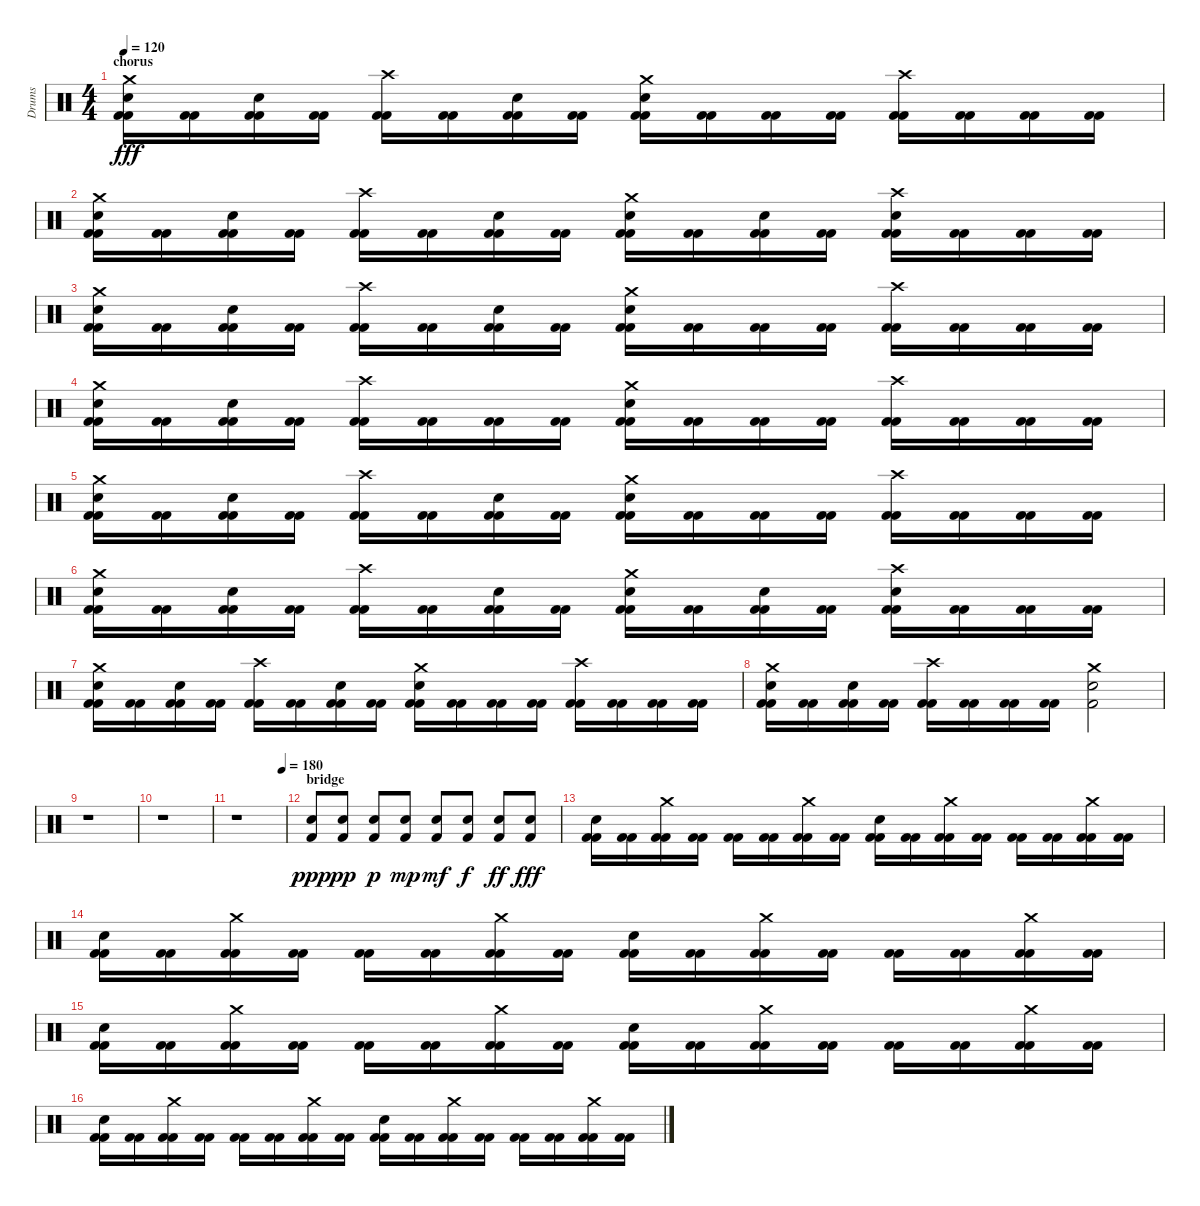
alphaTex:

\track ("Drums" "Drums") {instrument percussion}
\staff {score}
\articulation defaults
\ts (4 4)
\section ("" "chorus")
\tempo 120
\clef neutral
\ks c
("Crash medium (hit)" "Electric Snare (hit)" "Kick (hit) 2" "Kick (hit) 2").16{dy fff} ("Kick (hit) 2" "Kick (hit) 2").16 ("Electric Snare (hit)" "Kick (hit) 2" "Kick (hit) 2").16 ("Kick (hit) 2" "Kick (hit) 2").16 ("Crash high (hit)" "Kick (hit) 2" "Kick (hit) 2").16 ("Kick (hit) 2" "Kick (hit) 2").16 ("Electric Snare (hit)" "Kick (hit) 2" "Kick (hit) 2").16 ("Kick (hit) 2" "Kick (hit) 2").16 ("Crash medium (hit)" "Electric Snare (hit)" "Kick (hit) 2" "Kick (hit) 2").16 ("Kick (hit) 2" "Kick (hit) 2").16 ("Kick (hit) 2" "Kick (hit) 2").16 ("Kick (hit) 2" "Kick (hit) 2").16 ("Crash high (hit)" "Kick (hit) 2" "Kick (hit) 2").16 ("Kick (hit) 2" "Kick (hit) 2").16 ("Kick (hit) 2" "Kick (hit) 2").16 ("Kick (hit) 2" "Kick (hit) 2").16 |
("Crash medium (hit)" "Electric Snare (hit)" "Kick (hit) 2" "Kick (hit) 2").16 ("Kick (hit) 2" "Kick (hit) 2").16 ("Electric Snare (hit)" "Kick (hit) 2" "Kick (hit) 2").16 ("Kick (hit) 2" "Kick (hit) 2").16 ("Crash high (hit)" "Kick (hit) 2" "Kick (hit) 2").16 ("Kick (hit) 2" "Kick (hit) 2").16 ("Electric Snare (hit)" "Kick (hit) 2" "Kick (hit) 2").16 ("Kick (hit) 2" "Kick (hit) 2").16 ("Crash medium (hit)" "Electric Snare (hit)" "Kick (hit) 2" "Kick (hit) 2").16 ("Kick (hit) 2" "Kick (hit) 2").16 ("Electric Snare (hit)" "Kick (hit) 2" "Kick (hit) 2").16 ("Kick (hit) 2" "Kick (hit) 2").16 ("Crash high (hit)" "Electric Snare (hit)" "Kick (hit) 2" "Kick (hit) 2").16 ("Kick (hit) 2" "Kick (hit) 2").16 ("Kick (hit) 2" "Kick (hit) 2").16 ("Kick (hit) 2" "Kick (hit) 2").16 |
("Crash medium (hit)" "Electric Snare (hit)" "Kick (hit) 2" "Kick (hit) 2").16 ("Kick (hit) 2" "Kick (hit) 2").16 ("Electric Snare (hit)" "Kick (hit) 2" "Kick (hit) 2").16 ("Kick (hit) 2" "Kick (hit) 2").16 ("Crash high (hit)" "Kick (hit) 2" "Kick (hit) 2").16 ("Kick (hit) 2" "Kick (hit) 2").16 ("Electric Snare (hit)" "Kick (hit) 2" "Kick (hit) 2").16 ("Kick (hit) 2" "Kick (hit) 2").16 ("Crash medium (hit)" "Electric Snare (hit)" "Kick (hit) 2" "Kick (hit) 2").16 ("Kick (hit) 2" "Kick (hit) 2").16 ("Kick (hit) 2" "Kick (hit) 2").16 ("Kick (hit) 2" "Kick (hit) 2").16 ("Crash high (hit)" "Kick (hit) 2" "Kick (hit) 2").16 ("Kick (hit) 2" "Kick (hit) 2").16 ("Kick (hit) 2" "Kick (hit) 2").16 ("Kick (hit) 2" "Kick (hit) 2").16 |
("Crash medium (hit)" "Electric Snare (hit)" "Kick (hit) 2" "Kick (hit) 2").16 ("Kick (hit) 2" "Kick (hit) 2").16 ("Electric Snare (hit)" "Kick (hit) 2" "Kick (hit) 2").16 ("Kick (hit) 2" "Kick (hit) 2").16 ("Crash high (hit)" "Kick (hit) 2" "Kick (hit) 2").16 ("Kick (hit) 2" "Kick (hit) 2").16 ("Kick (hit) 2" "Kick (hit) 2").16 ("Kick (hit) 2" "Kick (hit) 2").16 ("Crash medium (hit)" "Electric Snare (hit)" "Kick (hit) 2" "Kick (hit) 2").16 ("Kick (hit) 2" "Kick (hit) 2").16 ("Kick (hit) 2" "Kick (hit) 2").16 ("Kick (hit) 2" "Kick (hit) 2").16 ("Crash high (hit)" "Kick (hit) 2" "Kick (hit) 2").16 ("Kick (hit) 2" "Kick (hit) 2").16 ("Kick (hit) 2" "Kick (hit) 2").16 ("Kick (hit) 2" "Kick (hit) 2").16 |
("Crash medium (hit)" "Electric Snare (hit)" "Kick (hit) 2" "Kick (hit) 2").16 ("Kick (hit) 2" "Kick (hit) 2").16 ("Electric Snare (hit)" "Kick (hit) 2" "Kick (hit) 2").16 ("Kick (hit) 2" "Kick (hit) 2").16 ("Crash high (hit)" "Kick (hit) 2" "Kick (hit) 2").16 ("Kick (hit) 2" "Kick (hit) 2").16 ("Electric Snare (hit)" "Kick (hit) 2" "Kick (hit) 2").16 ("Kick (hit) 2" "Kick (hit) 2").16 ("Crash medium (hit)" "Electric Snare (hit)" "Kick (hit) 2" "Kick (hit) 2").16 ("Kick (hit) 2" "Kick (hit) 2").16 ("Kick (hit) 2" "Kick (hit) 2").16 ("Kick (hit) 2" "Kick (hit) 2").16 ("Crash high (hit)" "Kick (hit) 2" "Kick (hit) 2").16 ("Kick (hit) 2" "Kick (hit) 2").16 ("Kick (hit) 2" "Kick (hit) 2").16 ("Kick (hit) 2" "Kick (hit) 2").16 |
("Crash medium (hit)" "Electric Snare (hit)" "Kick (hit) 2" "Kick (hit) 2").16 ("Kick (hit) 2" "Kick (hit) 2").16 ("Electric Snare (hit)" "Kick (hit) 2" "Kick (hit) 2").16 ("Kick (hit) 2" "Kick (hit) 2").16 ("Crash high (hit)" "Kick (hit) 2" "Kick (hit) 2").16 ("Kick (hit) 2" "Kick (hit) 2").16 ("Electric Snare (hit)" "Kick (hit) 2" "Kick (hit) 2").16 ("Kick (hit) 2" "Kick (hit) 2").16 ("Crash medium (hit)" "Electric Snare (hit)" "Kick (hit) 2" "Kick (hit) 2").16 ("Kick (hit) 2" "Kick (hit) 2").16 ("Electric Snare (hit)" "Kick (hit) 2" "Kick (hit) 2").16 ("Kick (hit) 2" "Kick (hit) 2").16 ("Crash high (hit)" "Electric Snare (hit)" "Kick (hit) 2" "Kick (hit) 2").16 ("Kick (hit) 2" "Kick (hit) 2").16 ("Kick (hit) 2" "Kick (hit) 2").16 ("Kick (hit) 2" "Kick (hit) 2").16 |
("Crash medium (hit)" "Electric Snare (hit)" "Kick (hit) 2" "Kick (hit) 2").16 ("Kick (hit) 2" "Kick (hit) 2").16 ("Electric Snare (hit)" "Kick (hit) 2" "Kick (hit) 2").16 ("Kick (hit) 2" "Kick (hit) 2").16 ("Crash high (hit)" "Kick (hit) 2" "Kick (hit) 2").16 ("Kick (hit) 2" "Kick (hit) 2").16 ("Electric Snare (hit)" "Kick (hit) 2" "Kick (hit) 2").16 ("Kick (hit) 2" "Kick (hit) 2").16 ("Crash medium (hit)" "Electric Snare (hit)" "Kick (hit) 2" "Kick (hit) 2").16 ("Kick (hit) 2" "Kick (hit) 2").16 ("Kick (hit) 2" "Kick (hit) 2").16 ("Kick (hit) 2" "Kick (hit) 2").16 ("Crash high (hit)" "Kick (hit) 2" "Kick (hit) 2").16 ("Kick (hit) 2" "Kick (hit) 2").16 ("Kick (hit) 2" "Kick (hit) 2").16 ("Kick (hit) 2" "Kick (hit) 2").16 |
("Crash medium (hit)" "Electric Snare (hit)" "Kick (hit) 2" "Kick (hit) 2").16 ("Kick (hit) 2" "Kick (hit) 2").16 ("Electric Snare (hit)" "Kick (hit) 2" "Kick (hit) 2").16 ("Kick (hit) 2" "Kick (hit) 2").16 ("Crash high (hit)" "Kick (hit) 2" "Kick (hit) 2").16 ("Kick (hit) 2" "Kick (hit) 2").16 ("Kick (hit) 2" "Kick (hit) 2").16 ("Kick (hit) 2" "Kick (hit) 2").16 ("Crash medium (hit)" "Electric Snare (hit)" "Kick (hit) 2").2 |
r.1 |
r.1 |
\tempo (180 0.9375)
r.1 |
\section ("" "bridge")
("Electric Snare (hit)" "Kick (hit) 2").8{dy ppp} ("Electric Snare (hit)" "Kick (hit) 2").8{dy pp} ("Electric Snare (hit)" "Kick (hit) 2").8{dy p} ("Electric Snare (hit)" "Kick (hit) 2").8{dy mp} ("Electric Snare (hit)" "Kick (hit) 2").8{dy mf} ("Electric Snare (hit)" "Kick (hit) 2").8{dy f} ("Electric Snare (hit)" "Kick (hit) 2").8{dy ff} ("Electric Snare (hit)" "Kick (hit) 2").8{dy fff} |
("Electric Snare (hit)" "Kick (hit) 2" "Kick (hit) 2").16 ("Kick (hit) 2" "Kick (hit) 2").16 ("Crash medium (hit)" "Kick (hit) 2" "Kick (hit) 2").16 ("Kick (hit) 2" "Kick (hit) 2").16 ("Kick (hit) 2" "Kick (hit) 2").16 ("Kick (hit) 2" "Kick (hit) 2").16 ("Crash medium (hit)" "Kick (hit) 2" "Kick (hit) 2").16 ("Kick (hit) 2" "Kick (hit) 2").16 ("Electric Snare (hit)" "Kick (hit) 2" "Kick (hit) 2").16 ("Kick (hit) 2" "Kick (hit) 2").16 ("Crash medium (hit)" "Kick (hit) 2" "Kick (hit) 2").16 ("Kick (hit) 2" "Kick (hit) 2").16 ("Kick (hit) 2" "Kick (hit) 2").16 ("Kick (hit) 2" "Kick (hit) 2").16 ("Crash medium (hit)" "Kick (hit) 2" "Kick (hit) 2").16 ("Kick (hit) 2" "Kick (hit) 2").16 |
("Electric Snare (hit)" "Kick (hit) 2" "Kick (hit) 2").16 ("Kick (hit) 2" "Kick (hit) 2").16 ("Crash medium (hit)" "Kick (hit) 2" "Kick (hit) 2").16 ("Kick (hit) 2" "Kick (hit) 2").16 ("Kick (hit) 2" "Kick (hit) 2").16 ("Kick (hit) 2" "Kick (hit) 2").16 ("Crash medium (hit)" "Kick (hit) 2" "Kick (hit) 2").16 ("Kick (hit) 2" "Kick (hit) 2").16 ("Electric Snare (hit)" "Kick (hit) 2" "Kick (hit) 2").16 ("Kick (hit) 2" "Kick (hit) 2").16 ("Crash medium (hit)" "Kick (hit) 2" "Kick (hit) 2").16 ("Kick (hit) 2" "Kick (hit) 2").16 ("Kick (hit) 2" "Kick (hit) 2").16 ("Kick (hit) 2" "Kick (hit) 2").16 ("Crash medium (hit)" "Kick (hit) 2" "Kick (hit) 2").16 ("Kick (hit) 2" "Kick (hit) 2").16 |
("Electric Snare (hit)" "Kick (hit) 2" "Kick (hit) 2").16 ("Kick (hit) 2" "Kick (hit) 2").16 ("Crash medium (hit)" "Kick (hit) 2" "Kick (hit) 2").16 ("Kick (hit) 2" "Kick (hit) 2").16 ("Kick (hit) 2" "Kick (hit) 2").16 ("Kick (hit) 2" "Kick (hit) 2").16 ("Crash medium (hit)" "Kick (hit) 2" "Kick (hit) 2").16 ("Kick (hit) 2" "Kick (hit) 2").16 ("Electric Snare (hit)" "Kick (hit) 2" "Kick (hit) 2").16 ("Kick (hit) 2" "Kick (hit) 2").16 ("Crash medium (hit)" "Kick (hit) 2" "Kick (hit) 2").16 ("Kick (hit) 2" "Kick (hit) 2").16 ("Kick (hit) 2" "Kick (hit) 2").16 ("Kick (hit) 2" "Kick (hit) 2").16 ("Crash medium (hit)" "Kick (hit) 2" "Kick (hit) 2").16 ("Kick (hit) 2" "Kick (hit) 2").16 |
("Electric Snare (hit)" "Kick (hit) 2" "Kick (hit) 2").16 ("Kick (hit) 2" "Kick (hit) 2").16 ("Crash medium (hit)" "Kick (hit) 2" "Kick (hit) 2").16 ("Kick (hit) 2" "Kick (hit) 2").16 ("Kick (hit) 2" "Kick (hit) 2").16 ("Kick (hit) 2" "Kick (hit) 2").16 ("Crash medium (hit)" "Kick (hit) 2" "Kick (hit) 2").16 ("Kick (hit) 2" "Kick (hit) 2").16 ("Electric Snare (hit)" "Kick (hit) 2" "Kick (hit) 2").16 ("Kick (hit) 2" "Kick (hit) 2").16 ("Crash medium (hit)" "Kick (hit) 2" "Kick (hit) 2").16 ("Kick (hit) 2" "Kick (hit) 2").16 ("Kick (hit) 2" "Kick (hit) 2").16 ("Kick (hit) 2" "Kick (hit) 2").16 ("Crash medium (hit)" "Kick (hit) 2" "Kick (hit) 2").16 ("Kick (hit) 2" "Kick (hit) 2").16
